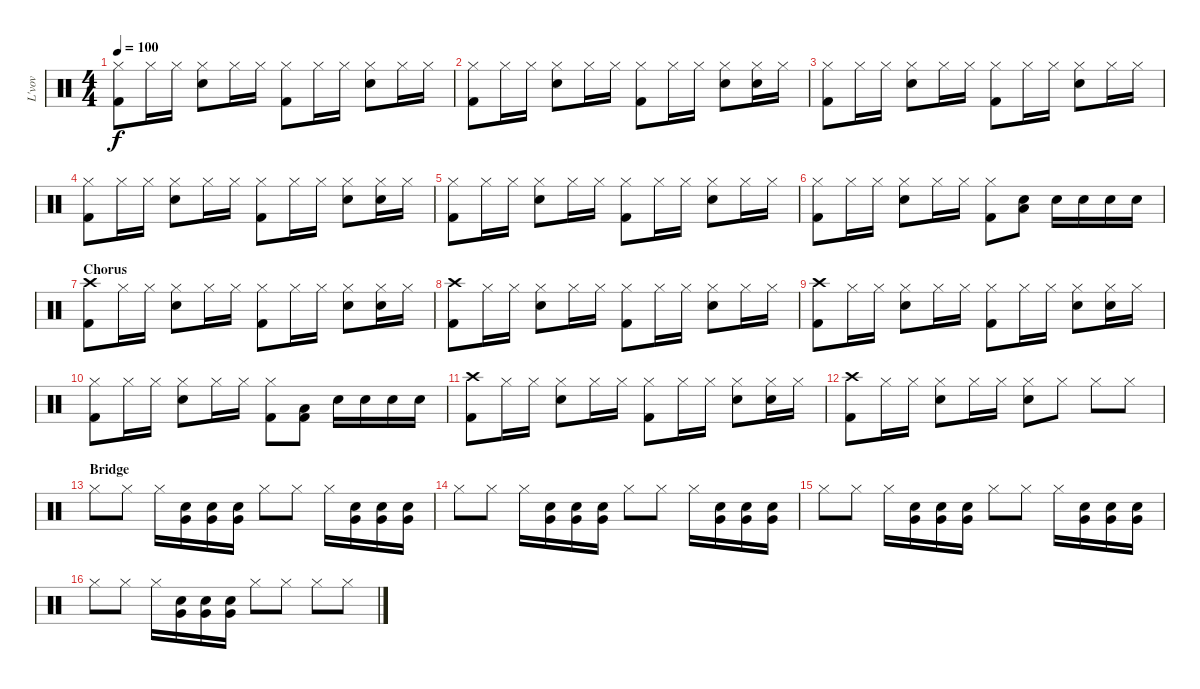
\track ("L'vov" "L'vov") {instrument percussion}
\staff {score}
\articulation defaults
\ts (4 4)
\tempo 100
\clef neutral
\ks c
("Kick (hit) 2" "Hi-Hat (closed)").8{dy f} "Hi-Hat (closed)".16 "Hi-Hat (closed)".16 ("Snare (hit) 2" "Hi-Hat (closed)").8 "Hi-Hat (closed)".16 "Hi-Hat (closed)".16 ("Kick (hit) 2" "Hi-Hat (closed)").8 "Hi-Hat (closed)".16 "Hi-Hat (closed)".16 ("Snare (hit) 2" "Hi-Hat (closed)").8 "Hi-Hat (closed)".16 "Hi-Hat (closed)".16 |
("Kick (hit) 2" "Hi-Hat (closed)").8 "Hi-Hat (closed)".16 "Hi-Hat (closed)".16 ("Snare (hit) 2" "Hi-Hat (closed)").8 "Hi-Hat (closed)".16 "Hi-Hat (closed)".16 ("Kick (hit) 2" "Hi-Hat (closed)").8 "Hi-Hat (closed)".16 "Hi-Hat (closed)".16 ("Snare (hit) 2" "Hi-Hat (closed)").8 ("Snare (hit) 2" "Hi-Hat (closed)").16 "Hi-Hat (closed)".16 |
("Kick (hit) 2" "Hi-Hat (closed)").8 "Hi-Hat (closed)".16 "Hi-Hat (closed)".16 ("Snare (hit) 2" "Hi-Hat (closed)").8 "Hi-Hat (closed)".16 "Hi-Hat (closed)".16 ("Kick (hit) 2" "Hi-Hat (closed)").8 "Hi-Hat (closed)".16 "Hi-Hat (closed)".16 ("Snare (hit) 2" "Hi-Hat (closed)").8 "Hi-Hat (closed)".16 "Hi-Hat (closed)".16 |
("Kick (hit) 2" "Hi-Hat (closed)").8 "Hi-Hat (closed)".16 "Hi-Hat (closed)".16 ("Snare (hit) 2" "Hi-Hat (closed)").8 "Hi-Hat (closed)".16 "Hi-Hat (closed)".16 ("Kick (hit) 2" "Hi-Hat (closed)").8 "Hi-Hat (closed)".16 "Hi-Hat (closed)".16 ("Snare (hit) 2" "Hi-Hat (closed)").8 ("Snare (hit) 2" "Hi-Hat (closed)").16 "Hi-Hat (closed)".16 |
("Kick (hit) 2" "Hi-Hat (closed)").8 "Hi-Hat (closed)".16 "Hi-Hat (closed)".16 ("Snare (hit) 2" "Hi-Hat (closed)").8 "Hi-Hat (closed)".16 "Hi-Hat (closed)".16 ("Kick (hit) 2" "Hi-Hat (closed)").8 "Hi-Hat (closed)".16 "Hi-Hat (closed)".16 ("Snare (hit) 2" "Hi-Hat (closed)").8 "Hi-Hat (closed)".16 "Hi-Hat (closed)".16 |
("Kick (hit) 2" "Hi-Hat (closed)").8 "Hi-Hat (closed)".16 "Hi-Hat (closed)".16 ("Snare (hit) 2" "Hi-Hat (closed)").8 "Hi-Hat (closed)".16 "Hi-Hat (closed)".16 ("Kick (hit) 2" "Hi-Hat (closed)").8 ("Snare (hit) 2" "Low Floor Tom (hit)").8 "Snare (hit) 2".16 "Snare (hit) 2".16 "Snare (hit) 2".16 "Snare (hit) 2".16 |
\section ("" "Chorus")
("Kick (hit) 2" "Crash high (hit)").8 "Hi-Hat (closed)".16 "Hi-Hat (closed)".16 ("Snare (hit) 2" "Hi-Hat (closed)").8 "Hi-Hat (closed)".16 "Hi-Hat (closed)".16 ("Kick (hit) 2" "Hi-Hat (closed)").8 "Hi-Hat (closed)".16 "Hi-Hat (closed)".16 ("Snare (hit) 2" "Hi-Hat (closed)").8 ("Snare (hit) 2" "Hi-Hat (closed)").16 "Hi-Hat (closed)".16 |
("Kick (hit) 2" "Crash high (hit)").8 "Hi-Hat (closed)".16 "Hi-Hat (closed)".16 ("Snare (hit) 2" "Hi-Hat (closed)").8 "Hi-Hat (closed)".16 "Hi-Hat (closed)".16 ("Kick (hit) 2" "Hi-Hat (closed)").8 "Hi-Hat (closed)".16 "Hi-Hat (closed)".16 ("Snare (hit) 2" "Hi-Hat (closed)").8 "Hi-Hat (closed)".16 "Hi-Hat (closed)".16 |
("Kick (hit) 2" "Crash high (hit)").8 "Hi-Hat (closed)".16 "Hi-Hat (closed)".16 ("Snare (hit) 2" "Hi-Hat (closed)").8 "Hi-Hat (closed)".16 "Hi-Hat (closed)".16 ("Kick (hit) 2" "Hi-Hat (closed)").8 "Hi-Hat (closed)".16 "Hi-Hat (closed)".16 ("Snare (hit) 2" "Hi-Hat (closed)").8 ("Snare (hit) 2" "Hi-Hat (closed)").16 "Hi-Hat (closed)".16 |
("Kick (hit) 2" "Hi-Hat (closed)").8 "Hi-Hat (closed)".16 "Hi-Hat (closed)".16 ("Snare (hit) 2" "Hi-Hat (closed)").8 "Hi-Hat (closed)".16 "Hi-Hat (closed)".16 ("Kick (hit) 2" "Hi-Hat (closed)").8 ("Low Floor Tom (hit)" "Kick (hit) 2").8 "Snare (hit) 2".16 "Snare (hit) 2".16 "Snare (hit) 2".16 "Snare (hit) 2".16 |
("Kick (hit) 2" "Crash high (hit)").8 "Hi-Hat (closed)".16 "Hi-Hat (closed)".16 ("Snare (hit) 2" "Hi-Hat (closed)").8 "Hi-Hat (closed)".16 "Hi-Hat (closed)".16 ("Kick (hit) 2" "Hi-Hat (closed)").8 "Hi-Hat (closed)".16 "Hi-Hat (closed)".16 ("Snare (hit) 2" "Hi-Hat (closed)").8 ("Snare (hit) 2" "Hi-Hat (closed)").16 "Hi-Hat (closed)".16 |
("Kick (hit) 2" "Crash high (hit)").8 "Hi-Hat (closed)".16 "Hi-Hat (closed)".16 ("Snare (hit) 2" "Hi-Hat (closed)").8 "Hi-Hat (closed)".16 "Hi-Hat (closed)".16 ("Snare (hit) 2" "Hi-Hat (closed)").8 "Hi-Hat (closed)".8 "Hi-Hat (closed)".8 "Hi-Hat (closed)".8 |
\section ("" "Bridge")
"Hi-Hat (closed)".8 "Hi-Hat (closed)".8 "Hi-Hat (closed)".16 ("Snare (hit) 2" "Very Low Tom (hit)").16 ("Snare (hit) 2" "Very Low Tom (hit)").16 ("Snare (hit) 2" "Very Low Tom (hit)").16 "Hi-Hat (closed)".8 "Hi-Hat (closed)".8 "Hi-Hat (closed)".16 ("Snare (hit) 2" "Very Low Tom (hit)").16 ("Snare (hit) 2" "Very Low Tom (hit)").16 ("Snare (hit) 2" "Very Low Tom (hit)").16 |
"Hi-Hat (closed)".8 "Hi-Hat (closed)".8 "Hi-Hat (closed)".16 ("Snare (hit) 2" "Very Low Tom (hit)").16 ("Snare (hit) 2" "Very Low Tom (hit)").16 ("Snare (hit) 2" "Very Low Tom (hit)").16 "Hi-Hat (closed)".8 "Hi-Hat (closed)".8 "Hi-Hat (closed)".16 ("Snare (hit) 2" "Very Low Tom (hit)").16 ("Snare (hit) 2" "Very Low Tom (hit)").16 ("Snare (hit) 2" "Very Low Tom (hit)").16 |
"Hi-Hat (closed)".8 "Hi-Hat (closed)".8 "Hi-Hat (closed)".16 ("Snare (hit) 2" "Very Low Tom (hit)").16 ("Snare (hit) 2" "Very Low Tom (hit)").16 ("Snare (hit) 2" "Very Low Tom (hit)").16 "Hi-Hat (closed)".8 "Hi-Hat (closed)".8 "Hi-Hat (closed)".16 ("Snare (hit) 2" "Very Low Tom (hit)").16 ("Snare (hit) 2" "Very Low Tom (hit)").16 ("Snare (hit) 2" "Very Low Tom (hit)").16 |
"Hi-Hat (closed)".8 "Hi-Hat (closed)".8 "Hi-Hat (closed)".16 ("Snare (hit) 2" "Very Low Tom (hit)").16 ("Snare (hit) 2" "Very Low Tom (hit)").16 ("Snare (hit) 2" "Very Low Tom (hit)").16 "Hi-Hat (closed)".8 "Hi-Hat (closed)".8 "Hi-Hat (closed)".8 "Hi-Hat (closed)".8
